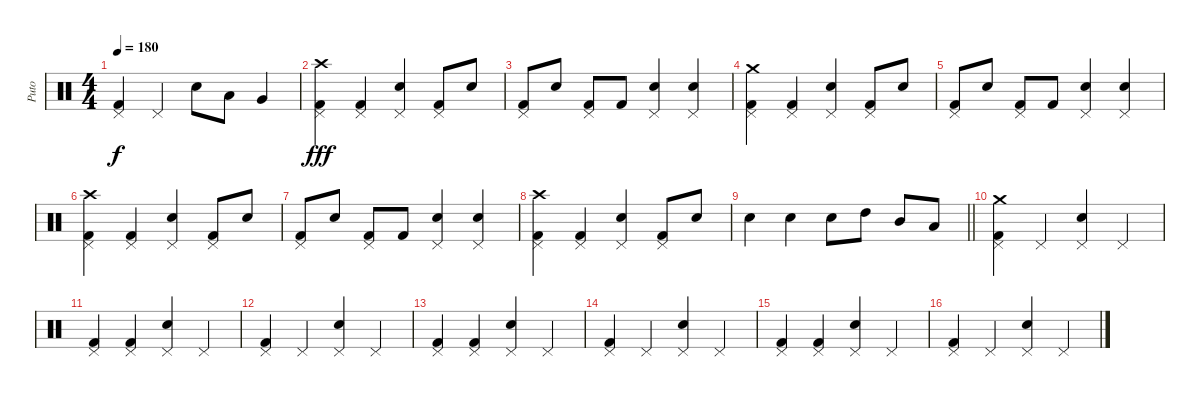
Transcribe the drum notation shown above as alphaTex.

\track ("Puto" "Puto") {instrument percussion}
\staff {score}
\articulation defaults
\ts (4 4)
\tempo 180
\clef neutral
\ks c
("Kick (hit) 2" "Pedal Hi-Hat (hit)").4{dy f} "Pedal Hi-Hat (hit)".4 "Snare (hit) 2".8 "Low Tom (hit)".8 "Very Low Tom (hit)".4 |
("Kick (hit) 2" "Crash high (hit)" "Pedal Hi-Hat (hit)").4{dy fff} ("Kick (hit) 2" "Pedal Hi-Hat (hit)").4 ("Snare (hit) 2" "Pedal Hi-Hat (hit)").4 ("Kick (hit) 2" "Pedal Hi-Hat (hit)").8 "Snare (hit) 2".8 |
("Kick (hit) 2" "Pedal Hi-Hat (hit)").8 "Snare (hit) 2".8 ("Kick (hit) 2" "Pedal Hi-Hat (hit)").8 "Kick (hit) 2".8 ("Snare (hit) 2" "Pedal Hi-Hat (hit)").4 ("Snare (hit) 2" "Pedal Hi-Hat (hit)").4 |
("Kick (hit) 2" "Crash medium (hit)" "Pedal Hi-Hat (hit)").4 ("Kick (hit) 2" "Pedal Hi-Hat (hit)").4 ("Snare (hit) 2" "Pedal Hi-Hat (hit)").4 ("Kick (hit) 2" "Pedal Hi-Hat (hit)").8 "Snare (hit) 2".8 |
("Kick (hit) 2" "Pedal Hi-Hat (hit)").8 "Snare (hit) 2".8 ("Kick (hit) 2" "Pedal Hi-Hat (hit)").8 "Kick (hit) 2".8 ("Snare (hit) 2" "Pedal Hi-Hat (hit)").4 ("Snare (hit) 2" "Pedal Hi-Hat (hit)").4 |
("Kick (hit) 2" "Crash high (hit)" "Pedal Hi-Hat (hit)").4 ("Kick (hit) 2" "Pedal Hi-Hat (hit)").4 ("Snare (hit) 2" "Pedal Hi-Hat (hit)").4 ("Kick (hit) 2" "Pedal Hi-Hat (hit)").8 "Snare (hit) 2".8 |
("Kick (hit) 2" "Pedal Hi-Hat (hit)").8 "Snare (hit) 2".8 ("Kick (hit) 2" "Pedal Hi-Hat (hit)").8 "Kick (hit) 2".8 ("Snare (hit) 2" "Pedal Hi-Hat (hit)").4 ("Snare (hit) 2" "Pedal Hi-Hat (hit)").4 |
("Kick (hit) 2" "Crash high (hit)" "Pedal Hi-Hat (hit)").4 ("Kick (hit) 2" "Pedal Hi-Hat (hit)").4 ("Snare (hit) 2" "Pedal Hi-Hat (hit)").4 ("Kick (hit) 2" "Pedal Hi-Hat (hit)").8 "Snare (hit) 2".8 |
\barLineRight lightlight "Snare (hit) 2".4 "Snare (hit) 2".4 "Snare (hit) 2".8 "High Tom (hit)".8 "Mid Tom (hit)".8 "Low Tom (hit)".8
|
("Kick (hit) 2" "Crash medium (hit)" "Pedal Hi-Hat (hit)").4 "Pedal Hi-Hat (hit)".4 ("Snare (hit) 2" "Pedal Hi-Hat (hit)").4 "Pedal Hi-Hat (hit)".4 |
("Kick (hit) 2" "Pedal Hi-Hat (hit)").4 ("Kick (hit) 2" "Pedal Hi-Hat (hit)").4 ("Snare (hit) 2" "Pedal Hi-Hat (hit)").4 "Pedal Hi-Hat (hit)".4 |
("Kick (hit) 2" "Pedal Hi-Hat (hit)").4 "Pedal Hi-Hat (hit)".4 ("Snare (hit) 2" "Pedal Hi-Hat (hit)").4 "Pedal Hi-Hat (hit)".4 |
("Kick (hit) 2" "Pedal Hi-Hat (hit)").4 ("Kick (hit) 2" "Pedal Hi-Hat (hit)").4 ("Snare (hit) 2" "Pedal Hi-Hat (hit)").4 "Pedal Hi-Hat (hit)".4 |
("Kick (hit) 2" "Pedal Hi-Hat (hit)").4 "Pedal Hi-Hat (hit)".4 ("Snare (hit) 2" "Pedal Hi-Hat (hit)").4 "Pedal Hi-Hat (hit)".4 |
("Kick (hit) 2" "Pedal Hi-Hat (hit)").4 ("Kick (hit) 2" "Pedal Hi-Hat (hit)").4 ("Snare (hit) 2" "Pedal Hi-Hat (hit)").4 "Pedal Hi-Hat (hit)".4 |
("Kick (hit) 2" "Pedal Hi-Hat (hit)").4 "Pedal Hi-Hat (hit)".4 ("Snare (hit) 2" "Pedal Hi-Hat (hit)").4 "Pedal Hi-Hat (hit)".4
